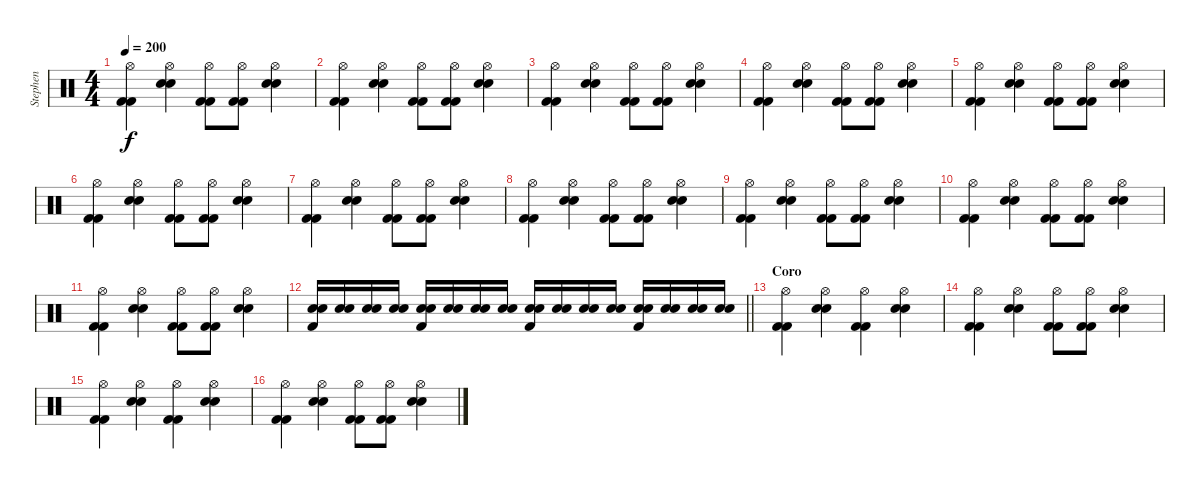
\track ("Stephen" "Stephen") {instrument percussion}
\staff {score}
\articulation defaults
\ts (4 4)
\tempo 200
\clef neutral
\ks c
("Hi-Hat (open)" "Kick (hit) 2" "Kick (hit) 2").4{dy f} ("Hi-Hat (open)" "Electric Snare (hit)" "Electric Snare (hit)").4 ("Hi-Hat (open)" "Kick (hit) 2" "Kick (hit) 2").8 ("Hi-Hat (open)" "Kick (hit) 2" "Kick (hit) 2").8 ("Hi-Hat (open)" "Electric Snare (hit)" "Electric Snare (hit)").4 |
("Hi-Hat (open)" "Kick (hit) 2" "Kick (hit) 2").4 ("Hi-Hat (open)" "Electric Snare (hit)" "Electric Snare (hit)").4 ("Hi-Hat (open)" "Kick (hit) 2" "Kick (hit) 2").8 ("Hi-Hat (open)" "Kick (hit) 2" "Kick (hit) 2").8 ("Hi-Hat (open)" "Electric Snare (hit)" "Electric Snare (hit)").4 |
("Hi-Hat (open)" "Kick (hit) 2" "Kick (hit) 2").4 ("Hi-Hat (open)" "Electric Snare (hit)" "Electric Snare (hit)").4 ("Hi-Hat (open)" "Kick (hit) 2" "Kick (hit) 2").8 ("Hi-Hat (open)" "Kick (hit) 2" "Kick (hit) 2").8 ("Hi-Hat (open)" "Electric Snare (hit)" "Electric Snare (hit)").4 |
("Hi-Hat (open)" "Kick (hit) 2" "Kick (hit) 2").4 ("Hi-Hat (open)" "Electric Snare (hit)" "Electric Snare (hit)").4 ("Hi-Hat (open)" "Kick (hit) 2" "Kick (hit) 2").8 ("Hi-Hat (open)" "Kick (hit) 2" "Kick (hit) 2").8 ("Hi-Hat (open)" "Electric Snare (hit)" "Electric Snare (hit)").4 |
("Hi-Hat (open)" "Kick (hit) 2" "Kick (hit) 2").4 ("Hi-Hat (open)" "Electric Snare (hit)" "Electric Snare (hit)").4 ("Hi-Hat (open)" "Kick (hit) 2" "Kick (hit) 2").8 ("Hi-Hat (open)" "Kick (hit) 2" "Kick (hit) 2").8 ("Hi-Hat (open)" "Electric Snare (hit)" "Electric Snare (hit)").4 |
("Hi-Hat (open)" "Kick (hit) 2" "Kick (hit) 2").4 ("Hi-Hat (open)" "Electric Snare (hit)" "Electric Snare (hit)").4 ("Hi-Hat (open)" "Kick (hit) 2" "Kick (hit) 2").8 ("Hi-Hat (open)" "Kick (hit) 2" "Kick (hit) 2").8 ("Hi-Hat (open)" "Electric Snare (hit)" "Electric Snare (hit)").4 |
("Hi-Hat (open)" "Kick (hit) 2" "Kick (hit) 2").4 ("Hi-Hat (open)" "Electric Snare (hit)" "Electric Snare (hit)").4 ("Hi-Hat (open)" "Kick (hit) 2" "Kick (hit) 2").8 ("Hi-Hat (open)" "Kick (hit) 2" "Kick (hit) 2").8 ("Hi-Hat (open)" "Electric Snare (hit)" "Electric Snare (hit)").4 |
("Hi-Hat (open)" "Kick (hit) 2" "Kick (hit) 2").4 ("Hi-Hat (open)" "Electric Snare (hit)" "Electric Snare (hit)").4 ("Hi-Hat (open)" "Kick (hit) 2" "Kick (hit) 2").8 ("Hi-Hat (open)" "Kick (hit) 2" "Kick (hit) 2").8 ("Hi-Hat (open)" "Electric Snare (hit)" "Electric Snare (hit)").4 |
("Hi-Hat (open)" "Kick (hit) 2" "Kick (hit) 2").4 ("Hi-Hat (open)" "Electric Snare (hit)" "Electric Snare (hit)").4 ("Hi-Hat (open)" "Kick (hit) 2" "Kick (hit) 2").8 ("Hi-Hat (open)" "Kick (hit) 2" "Kick (hit) 2").8 ("Hi-Hat (open)" "Electric Snare (hit)" "Electric Snare (hit)").4 |
("Hi-Hat (open)" "Kick (hit) 2" "Kick (hit) 2").4 ("Hi-Hat (open)" "Electric Snare (hit)" "Electric Snare (hit)").4 ("Hi-Hat (open)" "Kick (hit) 2" "Kick (hit) 2").8 ("Hi-Hat (open)" "Kick (hit) 2" "Kick (hit) 2").8 ("Hi-Hat (open)" "Electric Snare (hit)" "Electric Snare (hit)").4 |
("Hi-Hat (open)" "Kick (hit) 2" "Kick (hit) 2").4 ("Hi-Hat (open)" "Electric Snare (hit)" "Electric Snare (hit)").4 ("Hi-Hat (open)" "Kick (hit) 2" "Kick (hit) 2").8 ("Hi-Hat (open)" "Kick (hit) 2" "Kick (hit) 2").8 ("Hi-Hat (open)" "Electric Snare (hit)" "Electric Snare (hit)").4 |
\barLineRight lightlight
("Electric Snare (hit)" "Kick (hit) 2" "Electric Snare (hit)").16 ("Electric Snare (hit)" "Electric Snare (hit)").16 ("Electric Snare (hit)" "Electric Snare (hit)").16 ("Electric Snare (hit)" "Electric Snare (hit)").16 ("Electric Snare (hit)" "Kick (hit) 2" "Electric Snare (hit)").16 ("Electric Snare (hit)" "Electric Snare (hit)").16 ("Electric Snare (hit)" "Electric Snare (hit)").16 ("Electric Snare (hit)" "Electric Snare (hit)").16 ("Electric Snare (hit)" "Kick (hit) 2" "Electric Snare (hit)").16 ("Electric Snare (hit)" "Electric Snare (hit)").16 ("Electric Snare (hit)" "Electric Snare (hit)").16 ("Electric Snare (hit)" "Electric Snare (hit)").16 ("Electric Snare (hit)" "Kick (hit) 2" "Electric Snare (hit)").16 ("Electric Snare (hit)" "Electric Snare (hit)").16 ("Electric Snare (hit)" "Electric Snare (hit)").16 ("Electric Snare (hit)" "Electric Snare (hit)").16 |
\section ("" "Coro")
("Hi-Hat (open)" "Kick (hit) 2" "Kick (hit) 2").4 ("Hi-Hat (open)" "Electric Snare (hit)" "Electric Snare (hit)").4 ("Hi-Hat (open)" "Kick (hit) 2" "Kick (hit) 2").4 ("Hi-Hat (open)" "Electric Snare (hit)" "Electric Snare (hit)").4 |
("Hi-Hat (open)" "Kick (hit) 2" "Kick (hit) 2").4 ("Hi-Hat (open)" "Electric Snare (hit)" "Electric Snare (hit)").4 ("Hi-Hat (open)" "Kick (hit) 2" "Kick (hit) 2").8 ("Hi-Hat (open)" "Kick (hit) 2" "Kick (hit) 2").8 ("Hi-Hat (open)" "Electric Snare (hit)" "Electric Snare (hit)").4 |
("Hi-Hat (open)" "Kick (hit) 2" "Kick (hit) 2").4 ("Hi-Hat (open)" "Electric Snare (hit)" "Electric Snare (hit)").4 ("Hi-Hat (open)" "Kick (hit) 2" "Kick (hit) 2").4 ("Hi-Hat (open)" "Electric Snare (hit)" "Electric Snare (hit)").4 |
("Hi-Hat (open)" "Kick (hit) 2" "Kick (hit) 2").4 ("Hi-Hat (open)" "Electric Snare (hit)" "Electric Snare (hit)").4 ("Hi-Hat (open)" "Kick (hit) 2" "Kick (hit) 2").8 ("Hi-Hat (open)" "Kick (hit) 2" "Kick (hit) 2").8 ("Hi-Hat (open)" "Electric Snare (hit)" "Electric Snare (hit)").4
